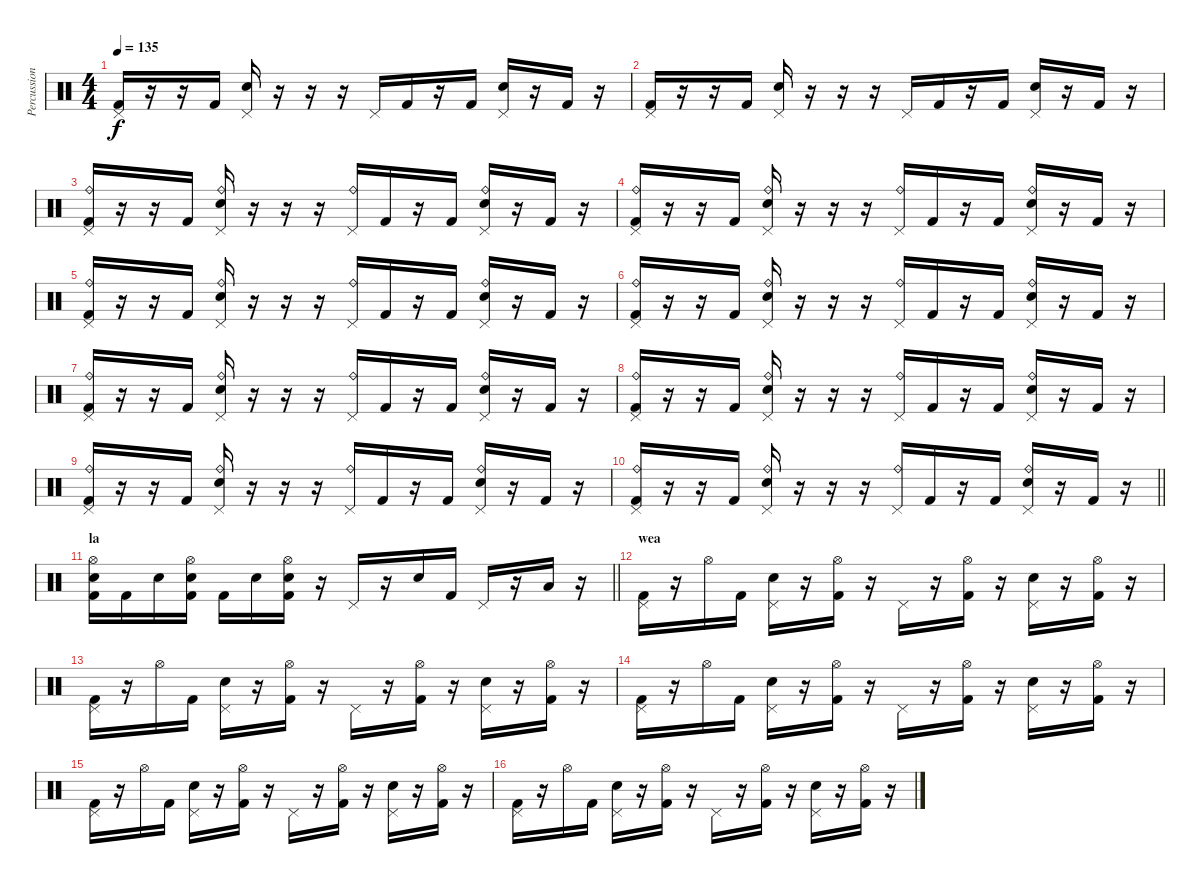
\track ("Percussion" "Percussion") {instrument percussion}
\staff {score}
\articulation defaults
\ts (4 4)
\tempo 135
\clef neutral
\ks c
("Pedal Hi-Hat (hit)" "Kick (hit) 2").16{dy f} r.16 r.16 "Kick (hit) 2".16 ("Electric Snare (hit)" "Pedal Hi-Hat (hit)").16 r.16 r.16 r.16 "Pedal Hi-Hat (hit)".16 "Kick (hit) 2".16 r.16 "Kick (hit) 2".16 ("Electric Snare (hit)" "Pedal Hi-Hat (hit)").16 r.16 "Kick (hit) 2".16 r.16 |
("Pedal Hi-Hat (hit)" "Kick (hit) 2").16 r.16 r.16 "Kick (hit) 2".16 ("Electric Snare (hit)" "Pedal Hi-Hat (hit)").16 r.16 r.16 r.16 "Pedal Hi-Hat (hit)".16 "Kick (hit) 2".16 r.16 "Kick (hit) 2".16 ("Electric Snare (hit)" "Pedal Hi-Hat (hit)").16 r.16 "Kick (hit) 2".16 r.16 |
("Ride (bell)" "Pedal Hi-Hat (hit)" "Kick (hit) 2").16 r.16 r.16 "Kick (hit) 2".16 ("Ride (bell)" "Electric Snare (hit)" "Pedal Hi-Hat (hit)").16 r.16 r.16 r.16 ("Ride (bell)" "Pedal Hi-Hat (hit)").16 "Kick (hit) 2".16 r.16 "Kick (hit) 2".16 ("Ride (bell)" "Electric Snare (hit)" "Pedal Hi-Hat (hit)").16 r.16 "Kick (hit) 2".16 r.16 |
("Ride (bell)" "Pedal Hi-Hat (hit)" "Kick (hit) 2").16 r.16 r.16 "Kick (hit) 2".16 ("Ride (bell)" "Electric Snare (hit)" "Pedal Hi-Hat (hit)").16 r.16 r.16 r.16 ("Ride (bell)" "Pedal Hi-Hat (hit)").16 "Kick (hit) 2".16 r.16 "Kick (hit) 2".16 ("Ride (bell)" "Electric Snare (hit)" "Pedal Hi-Hat (hit)").16 r.16 "Kick (hit) 2".16 r.16 |
("Ride (bell)" "Pedal Hi-Hat (hit)" "Kick (hit) 2").16 r.16 r.16 "Kick (hit) 2".16 ("Ride (bell)" "Electric Snare (hit)" "Pedal Hi-Hat (hit)").16 r.16 r.16 r.16 ("Ride (bell)" "Pedal Hi-Hat (hit)").16 "Kick (hit) 2".16 r.16 "Kick (hit) 2".16 ("Ride (bell)" "Electric Snare (hit)" "Pedal Hi-Hat (hit)").16 r.16 "Kick (hit) 2".16 r.16 |
("Ride (bell)" "Pedal Hi-Hat (hit)" "Kick (hit) 2").16 r.16 r.16 "Kick (hit) 2".16 ("Ride (bell)" "Electric Snare (hit)" "Pedal Hi-Hat (hit)").16 r.16 r.16 r.16 ("Ride (bell)" "Pedal Hi-Hat (hit)").16 "Kick (hit) 2".16 r.16 "Kick (hit) 2".16 ("Ride (bell)" "Electric Snare (hit)" "Pedal Hi-Hat (hit)").16 r.16 "Kick (hit) 2".16 r.16 |
("Ride (bell)" "Pedal Hi-Hat (hit)" "Kick (hit) 2").16 r.16 r.16 "Kick (hit) 2".16 ("Ride (bell)" "Electric Snare (hit)" "Pedal Hi-Hat (hit)").16 r.16 r.16 r.16 ("Ride (bell)" "Pedal Hi-Hat (hit)").16 "Kick (hit) 2".16 r.16 "Kick (hit) 2".16 ("Ride (bell)" "Electric Snare (hit)" "Pedal Hi-Hat (hit)").16 r.16 "Kick (hit) 2".16 r.16 |
("Ride (bell)" "Pedal Hi-Hat (hit)" "Kick (hit) 2").16 r.16 r.16 "Kick (hit) 2".16 ("Ride (bell)" "Electric Snare (hit)" "Pedal Hi-Hat (hit)").16 r.16 r.16 r.16 ("Ride (bell)" "Pedal Hi-Hat (hit)").16 "Kick (hit) 2".16 r.16 "Kick (hit) 2".16 ("Ride (bell)" "Electric Snare (hit)" "Pedal Hi-Hat (hit)").16 r.16 "Kick (hit) 2".16 r.16 |
("Ride (bell)" "Pedal Hi-Hat (hit)" "Kick (hit) 2").16 r.16 r.16 "Kick (hit) 2".16 ("Ride (bell)" "Electric Snare (hit)" "Pedal Hi-Hat (hit)").16 r.16 r.16 r.16 ("Ride (bell)" "Pedal Hi-Hat (hit)").16 "Kick (hit) 2".16 r.16 "Kick (hit) 2".16 ("Ride (bell)" "Electric Snare (hit)" "Pedal Hi-Hat (hit)").16 r.16 "Kick (hit) 2".16 r.16 |
\barLineRight lightlight
("Ride (bell)" "Pedal Hi-Hat (hit)" "Kick (hit) 2").16 r.16 r.16 "Kick (hit) 2".16 ("Ride (bell)" "Electric Snare (hit)" "Pedal Hi-Hat (hit)").16 r.16 r.16 r.16 ("Ride (bell)" "Pedal Hi-Hat (hit)").16 "Kick (hit) 2".16 r.16 "Kick (hit) 2".16 ("Ride (bell)" "Electric Snare (hit)" "Pedal Hi-Hat (hit)").16 r.16 "Kick (hit) 2".16 r.16 |
\section ("" "la")
\barLineRight lightlight
("Hi-Hat (open)" "Electric Snare (hit)" "Kick (hit) 2").16 "Kick (hit) 2".16 "Electric Snare (hit)".16 ("Hi-Hat (open)" "Electric Snare (hit)" "Kick (hit) 2").16 "Kick (hit) 2".16 "Electric Snare (hit)".16 ("Hi-Hat (open)" "Electric Snare (hit)" "Kick (hit) 2").16 r.16 "Pedal Hi-Hat (hit)".16 r.16 "Electric Snare (hit)".16 "Kick (hit) 2".16 "Pedal Hi-Hat (hit)".16 r.16 "Low Tom (hit)".16 r.16 |
\section ("" "wea")
("Pedal Hi-Hat (hit)" "Kick (hit) 2").16 r.16 "Hi-Hat (open)".16 "Kick (hit) 2".16 ("Electric Snare (hit)" "Pedal Hi-Hat (hit)").16 r.16 ("Hi-Hat (open)" "Kick (hit) 2").16 r.16 "Pedal Hi-Hat (hit)".16 r.16 ("Hi-Hat (open)" "Kick (hit) 2").16 r.16 ("Electric Snare (hit)" "Pedal Hi-Hat (hit)").16 r.16 ("Hi-Hat (open)" "Kick (hit) 2").16 r.16 |
("Pedal Hi-Hat (hit)" "Kick (hit) 2").16 r.16 "Hi-Hat (open)".16 "Kick (hit) 2".16 ("Electric Snare (hit)" "Pedal Hi-Hat (hit)").16 r.16 ("Hi-Hat (open)" "Kick (hit) 2").16 r.16 "Pedal Hi-Hat (hit)".16 r.16 ("Hi-Hat (open)" "Kick (hit) 2").16 r.16 ("Electric Snare (hit)" "Pedal Hi-Hat (hit)").16 r.16 ("Hi-Hat (open)" "Kick (hit) 2").16 r.16 |
("Pedal Hi-Hat (hit)" "Kick (hit) 2").16 r.16 "Hi-Hat (open)".16 "Kick (hit) 2".16 ("Electric Snare (hit)" "Pedal Hi-Hat (hit)").16 r.16 ("Hi-Hat (open)" "Kick (hit) 2").16 r.16 "Pedal Hi-Hat (hit)".16 r.16 ("Hi-Hat (open)" "Kick (hit) 2").16 r.16 ("Electric Snare (hit)" "Pedal Hi-Hat (hit)").16 r.16 ("Hi-Hat (open)" "Kick (hit) 2").16 r.16 |
("Pedal Hi-Hat (hit)" "Kick (hit) 2").16 r.16 "Hi-Hat (open)".16 "Kick (hit) 2".16 ("Electric Snare (hit)" "Pedal Hi-Hat (hit)").16 r.16 ("Hi-Hat (open)" "Kick (hit) 2").16 r.16 "Pedal Hi-Hat (hit)".16 r.16 ("Hi-Hat (open)" "Kick (hit) 2").16 r.16 ("Electric Snare (hit)" "Pedal Hi-Hat (hit)").16 r.16 ("Hi-Hat (open)" "Kick (hit) 2").16 r.16 |
("Pedal Hi-Hat (hit)" "Kick (hit) 2").16 r.16 "Hi-Hat (open)".16 "Kick (hit) 2".16 ("Electric Snare (hit)" "Pedal Hi-Hat (hit)").16 r.16 ("Hi-Hat (open)" "Kick (hit) 2").16 r.16 "Pedal Hi-Hat (hit)".16 r.16 ("Hi-Hat (open)" "Kick (hit) 2").16 r.16 ("Electric Snare (hit)" "Pedal Hi-Hat (hit)").16 r.16 ("Hi-Hat (open)" "Kick (hit) 2").16 r.16
